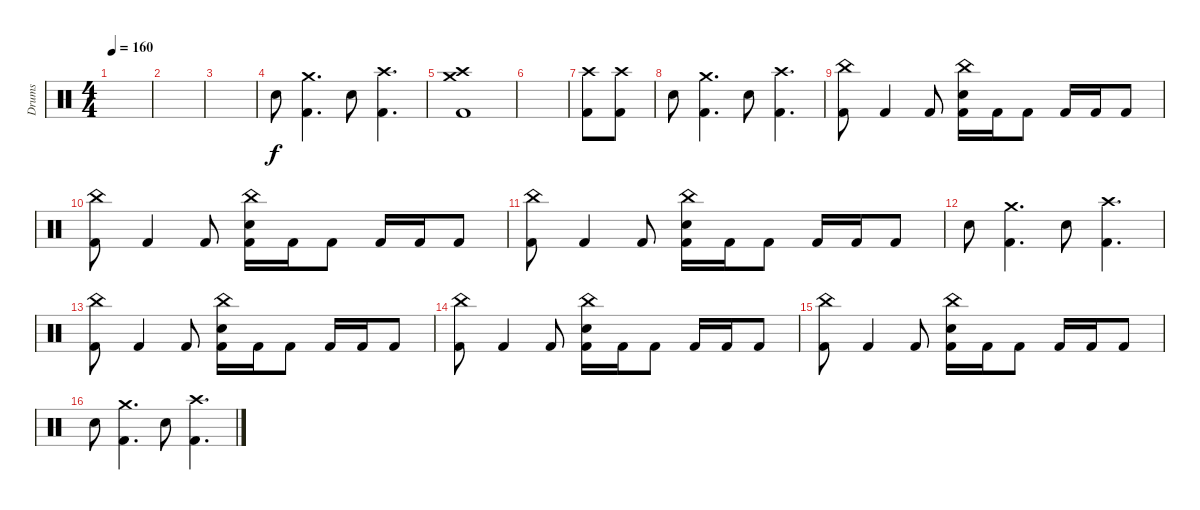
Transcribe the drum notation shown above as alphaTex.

\track ("Drums" "Drums") {instrument percussion}
\staff {score}
\articulation defaults
\ts (4 4)
\tempo 160
\clef neutral
\ks c
|
|
|
"Electric Snare (hit)".8 ("Crash medium (hit)" "Kick (hit) 2").4{d} "Electric Snare (hit)".8 ("Crash high (hit)" "Kick (hit) 2").4{d} |
("Crash high (hit)" "Crash medium (hit)" "Kick (hit) 2").1 |
|
("Crash high (hit)" "Kick (hit) 2").8 ("Crash high (hit)" "Kick (hit) 2").8 |
"Electric Snare (hit)".8 ("Crash medium (hit)" "Kick (hit) 2").4{d} "Electric Snare (hit)".8 ("Crash high (hit)" "Kick (hit) 2").4{d} |
("China (hit)" "Kick (hit) 2").8 "Kick (hit) 2".4 "Kick (hit) 2".8 ("China (hit)" "Electric Snare (hit)" "Kick (hit) 2").16 "Kick (hit) 2".16 "Kick (hit) 2".8 "Kick (hit) 2".16 "Kick (hit) 2".16 "Kick (hit) 2".8 |
("China (hit)" "Kick (hit) 2").8 "Kick (hit) 2".4 "Kick (hit) 2".8 ("China (hit)" "Electric Snare (hit)" "Kick (hit) 2").16 "Kick (hit) 2".16 "Kick (hit) 2".8 "Kick (hit) 2".16 "Kick (hit) 2".16 "Kick (hit) 2".8 |
("China (hit)" "Kick (hit) 2").8 "Kick (hit) 2".4 "Kick (hit) 2".8 ("China (hit)" "Electric Snare (hit)" "Kick (hit) 2").16 "Kick (hit) 2".16 "Kick (hit) 2".8 "Kick (hit) 2".16 "Kick (hit) 2".16 "Kick (hit) 2".8 |
"Electric Snare (hit)".8 ("Crash medium (hit)" "Kick (hit) 2").4{d} "Electric Snare (hit)".8 ("Crash high (hit)" "Kick (hit) 2").4{d} |
("China (hit)" "Kick (hit) 2").8 "Kick (hit) 2".4 "Kick (hit) 2".8 ("China (hit)" "Electric Snare (hit)" "Kick (hit) 2").16 "Kick (hit) 2".16 "Kick (hit) 2".8 "Kick (hit) 2".16 "Kick (hit) 2".16 "Kick (hit) 2".8 |
("China (hit)" "Kick (hit) 2").8 "Kick (hit) 2".4 "Kick (hit) 2".8 ("China (hit)" "Electric Snare (hit)" "Kick (hit) 2").16 "Kick (hit) 2".16 "Kick (hit) 2".8 "Kick (hit) 2".16 "Kick (hit) 2".16 "Kick (hit) 2".8 |
("China (hit)" "Kick (hit) 2").8 "Kick (hit) 2".4 "Kick (hit) 2".8 ("China (hit)" "Electric Snare (hit)" "Kick (hit) 2").16 "Kick (hit) 2".16 "Kick (hit) 2".8 "Kick (hit) 2".16 "Kick (hit) 2".16 "Kick (hit) 2".8 |
"Electric Snare (hit)".8 ("Crash medium (hit)" "Kick (hit) 2").4{d} "Electric Snare (hit)".8 ("Crash high (hit)" "Kick (hit) 2").4{d}
